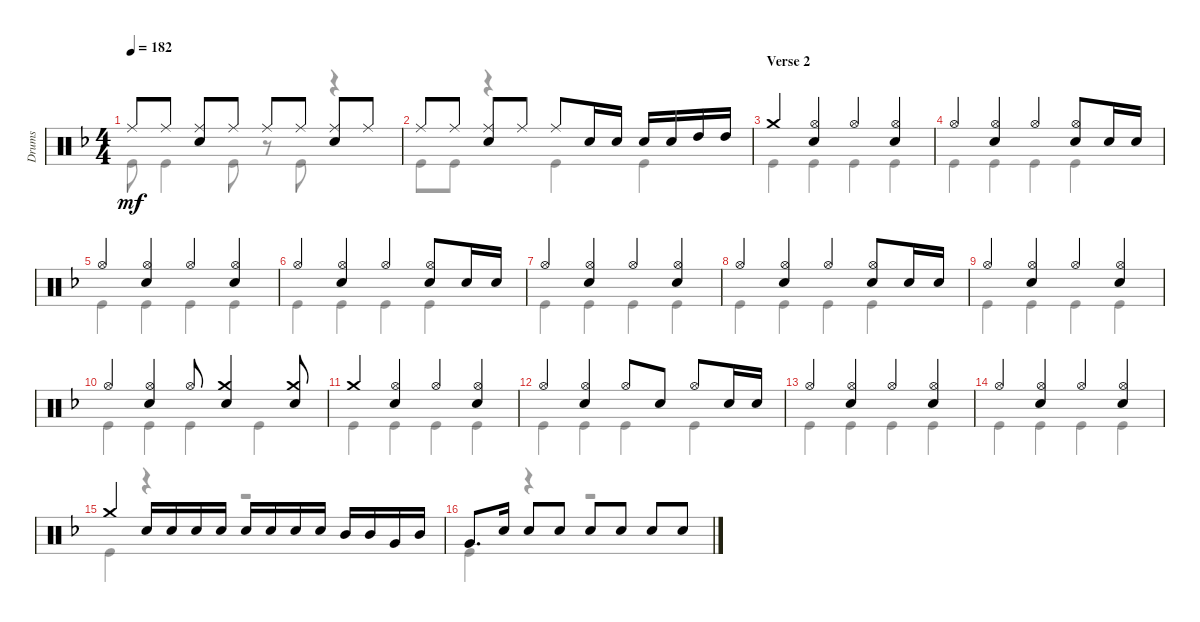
\track ("Drums" "Drums") {instrument percussion}
\staff {score}
\articulation defaults
\voice
\ts (4 4)
\tempo 182
\clef neutral
\ks f "Ride (middle)".8{dy mf} "Ride (middle)".8
("Ride (middle)" "Snare (hit) 2").8 "Ride (middle)".8 "Ride (middle)".8 "Ride (middle)".8 ("Ride (middle)" "Snare (hit) 2").8 "Ride (middle)".8 |
"Ride (middle)".8 "Ride (middle)".8 ("Ride (middle)" "Snare (hit) 2").8 "Ride (middle)".8 "Ride (middle)".8 "Snare (hit) 2".16 "Snare (hit) 2".16 "Snare (hit) 2".16 "Snare (hit) 2".16 "High Tom (hit)".16 "High Tom (hit)".16 |
\section ("" "Verse 2")
"Crash medium (hit)".4 ("Hi-Hat (open)" "Snare (hit) 2").4 "Hi-Hat (open)".4 ("Hi-Hat (open)" "Snare (hit) 2").4 |
"Hi-Hat (open)".4 ("Hi-Hat (open)" "Snare (hit) 2").4 "Hi-Hat (open)".4 ("Hi-Hat (open)" "Snare (hit) 2").8 "Snare (hit) 2".16 "Snare (hit) 2".16 |
"Hi-Hat (open)".4 ("Hi-Hat (open)" "Snare (hit) 2").4 "Hi-Hat (open)".4 ("Hi-Hat (open)" "Snare (hit) 2").4 |
"Hi-Hat (open)".4 ("Hi-Hat (open)" "Snare (hit) 2").4 "Hi-Hat (open)".4 ("Hi-Hat (open)" "Snare (hit) 2").8 "Snare (hit) 2".16 "Snare (hit) 2".16 |
"Hi-Hat (open)".4 ("Hi-Hat (open)" "Snare (hit) 2").4 "Hi-Hat (open)".4 ("Hi-Hat (open)" "Snare (hit) 2").4 |
"Hi-Hat (open)".4 ("Hi-Hat (open)" "Snare (hit) 2").4 "Hi-Hat (open)".4 ("Hi-Hat (open)" "Snare (hit) 2").8 "Snare (hit) 2".16 "Snare (hit) 2".16 |
"Hi-Hat (open)".4 ("Hi-Hat (open)" "Snare (hit) 2").4 "Hi-Hat (open)".4 ("Hi-Hat (open)" "Snare (hit) 2").4 |
"Hi-Hat (open)".4 ("Hi-Hat (open)" "Snare (hit) 2").4 "Hi-Hat (open)".8 ("Crash medium (hit)" "Snare (hit) 2").4 ("Snare (hit) 2" "Crash medium (hit)").8 |
"Crash medium (hit)".4 ("Hi-Hat (open)" "Snare (hit) 2").4 "Hi-Hat (open)".4 ("Hi-Hat (open)" "Snare (hit) 2").4 |
"Hi-Hat (open)".4 ("Hi-Hat (open)" "Snare (hit) 2").4 "Hi-Hat (open)".8 "Snare (hit) 2".8 "Hi-Hat (open)".8 "Snare (hit) 2".16 "Snare (hit) 2".16 |
"Hi-Hat (open)".4 ("Hi-Hat (open)" "Snare (hit) 2").4 "Hi-Hat (open)".4 ("Hi-Hat (open)" "Snare (hit) 2").4 |
"Hi-Hat (open)".4 ("Hi-Hat (open)" "Snare (hit) 2").4 "Hi-Hat (open)".4 ("Hi-Hat (open)" "Snare (hit) 2").4 |
"Crash medium (hit)".4 "Snare (hit) 2".16 "Snare (hit) 2".16 "Snare (hit) 2".16 "Snare (hit) 2".16 "Snare (hit) 2".16 "Snare (hit) 2".16 "Snare (hit) 2".16 "Snare (hit) 2".16 "Mid Tom (hit)".16 "Mid Tom (hit)".16 "Very Low Tom (hit)".16 "Mid Tom (hit)".16 |
"Very Low Tom (hit)".8{d} "Snare (hit) 2".16 "Snare (hit) 2".8 "Snare (hit) 2".8 "Snare (hit) 2".8 "Snare (hit) 2".8 "Snare (hit) 2".8 "Snare (hit) 2".8
\voice
\clef neutral
\ottava regular
\simile none
\ks f "Kick (hit)".8{dy mf} "Kick (hit)".4 "Kick (hit)".8
r.8 "Kick (hit)".8 r.4 |
"Kick (hit)".8 "Kick (hit)".8 r.4 "Kick (hit)".4 "Kick (hit)".4 |
"Kick (hit)".4 "Kick (hit)".4 "Kick (hit)".4 "Kick (hit)".4 |
"Kick (hit)".4 "Kick (hit)".4 "Kick (hit)".4 "Kick (hit)".4 |
"Kick (hit)".4 "Kick (hit)".4 "Kick (hit)".4 "Kick (hit)".4 |
"Kick (hit)".4 "Kick (hit)".4 "Kick (hit)".4 "Kick (hit)".4 |
"Kick (hit)".4 "Kick (hit)".4 "Kick (hit)".4 "Kick (hit)".4 |
"Kick (hit)".4 "Kick (hit)".4 "Kick (hit)".4 "Kick (hit)".4 |
"Kick (hit)".4 "Kick (hit)".4 "Kick (hit)".4 "Kick (hit)".4 |
"Kick (hit)".4 "Kick (hit)".4 "Kick (hit)".4 "Kick (hit)".4 |
"Kick (hit)".4 "Kick (hit)".4 "Kick (hit)".4 "Kick (hit)".4 |
"Kick (hit)".4 "Kick (hit)".4 "Kick (hit)".4 "Kick (hit)".4 |
"Kick (hit)".4 "Kick (hit)".4 "Kick (hit)".4 "Kick (hit)".4 |
"Kick (hit)".4 "Kick (hit)".4 "Kick (hit)".4 "Kick (hit)".4 |
"Kick (hit)".4 r.4 r.2 |
"Kick (hit)".4 r.4 r.2
